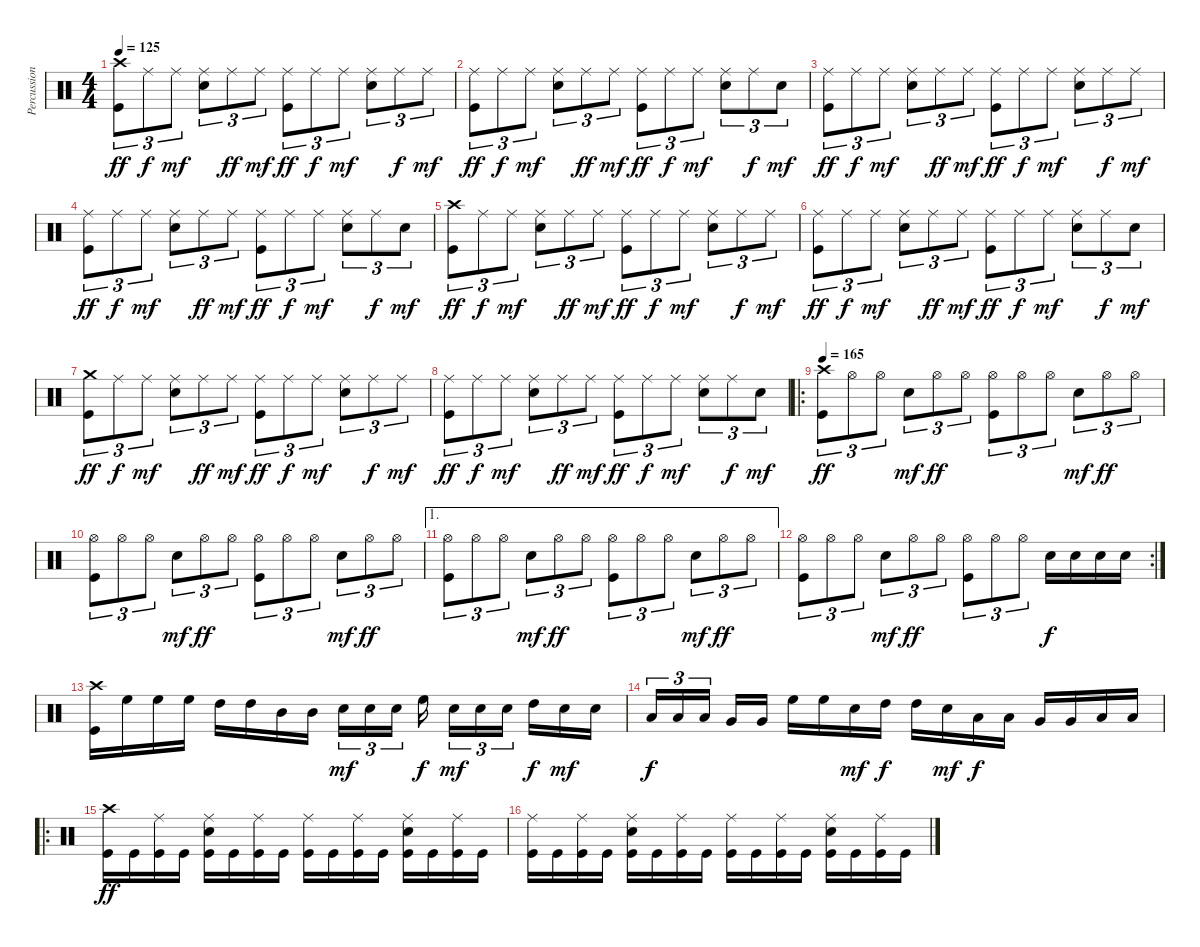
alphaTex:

\track ("Percussion" "Percussion") {instrument percussion}
\staff {score}
\articulation defaults
\ts (4 4)
\tempo 125
\clef neutral
\ks c
("Crash high (hit)" "Kick (hit)").8{tu (3 2) dy ff} "Ride (middle)".8{tu (3 2) dy f} "Ride (middle)".8{tu (3 2) dy mf} ("Ride (middle)" "Electric Snare (hit)").8{tu (3 2)} "Ride (middle)".8{tu (3 2) dy ff} "Ride (middle)".8{tu (3 2) dy mf} ("Ride (middle)" "Kick (hit)").8{tu (3 2) dy ff} "Ride (middle)".8{tu (3 2) dy f} "Ride (middle)".8{tu (3 2) dy mf} ("Ride (middle)" "Electric Snare (hit)").8{tu (3 2)} "Ride (middle)".8{tu (3 2) dy f} "Ride (middle)".8{tu (3 2) dy mf} |
("Ride (middle)" "Kick (hit)").8{tu (3 2) dy ff} "Ride (middle)".8{tu (3 2) dy f} "Ride (middle)".8{tu (3 2) dy mf} ("Ride (middle)" "Electric Snare (hit)").8{tu (3 2)} "Ride (middle)".8{tu (3 2) dy ff} "Ride (middle)".8{tu (3 2) dy mf} ("Ride (middle)" "Kick (hit)").8{tu (3 2) dy ff} "Ride (middle)".8{tu (3 2) dy f} "Ride (middle)".8{tu (3 2) dy mf} ("Ride (middle)" "Electric Snare (hit)").8{tu (3 2)} "Ride (middle)".8{tu (3 2) dy f} "Snare (hit)".8{tu (3 2) dy mf} |
("Ride (middle)" "Kick (hit)").8{tu (3 2) dy ff} "Ride (middle)".8{tu (3 2) dy f} "Ride (middle)".8{tu (3 2) dy mf} ("Ride (middle)" "Electric Snare (hit)").8{tu (3 2)} "Ride (middle)".8{tu (3 2) dy ff} "Ride (middle)".8{tu (3 2) dy mf} ("Ride (middle)" "Kick (hit)").8{tu (3 2) dy ff} "Ride (middle)".8{tu (3 2) dy f} "Ride (middle)".8{tu (3 2) dy mf} ("Ride (middle)" "Electric Snare (hit)").8{tu (3 2)} "Ride (middle)".8{tu (3 2) dy f} "Ride (middle)".8{tu (3 2) dy mf} |
("Ride (middle)" "Kick (hit)").8{tu (3 2) dy ff} "Ride (middle)".8{tu (3 2) dy f} "Ride (middle)".8{tu (3 2) dy mf} ("Ride (middle)" "Electric Snare (hit)").8{tu (3 2)} "Ride (middle)".8{tu (3 2) dy ff} "Ride (middle)".8{tu (3 2) dy mf} ("Ride (middle)" "Kick (hit)").8{tu (3 2) dy ff} "Ride (middle)".8{tu (3 2) dy f} "Ride (middle)".8{tu (3 2) dy mf} ("Ride (middle)" "Electric Snare (hit)").8{tu (3 2)} "Ride (middle)".8{tu (3 2) dy f} "Snare (hit)".8{tu (3 2) dy mf} |
("Crash high (hit)" "Kick (hit)").8{tu (3 2) dy ff} "Ride (middle)".8{tu (3 2) dy f} "Ride (middle)".8{tu (3 2) dy mf} ("Ride (middle)" "Electric Snare (hit)").8{tu (3 2)} "Ride (middle)".8{tu (3 2) dy ff} "Ride (middle)".8{tu (3 2) dy mf} ("Ride (middle)" "Kick (hit)").8{tu (3 2) dy ff} "Ride (middle)".8{tu (3 2) dy f} "Ride (middle)".8{tu (3 2) dy mf} ("Ride (middle)" "Electric Snare (hit)").8{tu (3 2)} "Ride (middle)".8{tu (3 2) dy f} "Ride (middle)".8{tu (3 2) dy mf} |
("Ride (middle)" "Kick (hit)").8{tu (3 2) dy ff} "Ride (middle)".8{tu (3 2) dy f} "Ride (middle)".8{tu (3 2) dy mf} ("Ride (middle)" "Electric Snare (hit)").8{tu (3 2)} "Ride (middle)".8{tu (3 2) dy ff} "Ride (middle)".8{tu (3 2) dy mf} ("Ride (middle)" "Kick (hit)").8{tu (3 2) dy ff} "Ride (middle)".8{tu (3 2) dy f} "Ride (middle)".8{tu (3 2) dy mf} ("Ride (middle)" "Electric Snare (hit)").8{tu (3 2)} "Ride (middle)".8{tu (3 2) dy f} "Snare (hit)".8{tu (3 2) dy mf} |
("Crash medium (hit)" "Kick (hit)").8{tu (3 2) dy ff} "Ride (middle)".8{tu (3 2) dy f} "Ride (middle)".8{tu (3 2) dy mf} ("Ride (middle)" "Electric Snare (hit)").8{tu (3 2)} "Ride (middle)".8{tu (3 2) dy ff} "Ride (middle)".8{tu (3 2) dy mf} ("Ride (middle)" "Kick (hit)").8{tu (3 2) dy ff} "Ride (middle)".8{tu (3 2) dy f} "Ride (middle)".8{tu (3 2) dy mf} ("Ride (middle)" "Electric Snare (hit)").8{tu (3 2)} "Ride (middle)".8{tu (3 2) dy f} "Ride (middle)".8{tu (3 2) dy mf} |
("Ride (middle)" "Kick (hit)").8{tu (3 2) dy ff} "Ride (middle)".8{tu (3 2) dy f} "Ride (middle)".8{tu (3 2) dy mf} ("Ride (middle)" "Electric Snare (hit)").8{tu (3 2)} "Ride (middle)".8{tu (3 2) dy ff} "Ride (middle)".8{tu (3 2) dy mf} ("Ride (middle)" "Kick (hit)").8{tu (3 2) dy ff} "Ride (middle)".8{tu (3 2) dy f} "Ride (middle)".8{tu (3 2) dy mf} ("Ride (middle)" "Electric Snare (hit)").8{tu (3 2)} "Ride (middle)".8{tu (3 2) dy f} "Snare (hit)".8{tu (3 2) dy mf} |
\ro
\tempo 165
("Crash high (hit)" "Kick (hit)").8{tu (3 2) dy ff} "Hi-Hat (open)".8{tu (3 2)} "Hi-Hat (open)".8{tu (3 2)} "Electric Snare (hit)".8{tu (3 2) dy mf} "Hi-Hat (open)".8{tu (3 2) dy ff} "Hi-Hat (open)".8{tu (3 2)} ("Hi-Hat (open)" "Kick (hit)").8{tu (3 2)} "Hi-Hat (open)".8{tu (3 2)} "Hi-Hat (open)".8{tu (3 2)} "Electric Snare (hit)".8{tu (3 2) dy mf} "Hi-Hat (open)".8{tu (3 2) dy ff} "Hi-Hat (open)".8{tu (3 2)} |
("Hi-Hat (open)" "Kick (hit)").8{tu (3 2)} "Hi-Hat (open)".8{tu (3 2)} "Hi-Hat (open)".8{tu (3 2)} "Electric Snare (hit)".8{tu (3 2) dy mf} "Hi-Hat (open)".8{tu (3 2) dy ff} "Hi-Hat (open)".8{tu (3 2)} ("Hi-Hat (open)" "Kick (hit)").8{tu (3 2)} "Hi-Hat (open)".8{tu (3 2)} "Hi-Hat (open)".8{tu (3 2)} "Electric Snare (hit)".8{tu (3 2) dy mf} "Hi-Hat (open)".8{tu (3 2) dy ff} "Hi-Hat (open)".8{tu (3 2)} |
\ae 1
("Hi-Hat (open)" "Kick (hit)").8{tu (3 2)} "Hi-Hat (open)".8{tu (3 2)} "Hi-Hat (open)".8{tu (3 2)} "Electric Snare (hit)".8{tu (3 2) dy mf} "Hi-Hat (open)".8{tu (3 2) dy ff} "Hi-Hat (open)".8{tu (3 2)} ("Hi-Hat (open)" "Kick (hit)").8{tu (3 2)} "Hi-Hat (open)".8{tu (3 2)} "Hi-Hat (open)".8{tu (3 2)} "Electric Snare (hit)".8{tu (3 2) dy mf} "Hi-Hat (open)".8{tu (3 2) dy ff} "Hi-Hat (open)".8{tu (3 2)} |
\rc 2
("Hi-Hat (open)" "Kick (hit)").8{tu (3 2)} "Hi-Hat (open)".8{tu (3 2)} "Hi-Hat (open)".8{tu (3 2)} "Electric Snare (hit)".8{tu (3 2) dy mf} "Hi-Hat (open)".8{tu (3 2) dy ff} "Hi-Hat (open)".8{tu (3 2)} ("Hi-Hat (open)" "Kick (hit)").8{tu (3 2)} "Hi-Hat (open)".8{tu (3 2)} "Hi-Hat (open)".8{tu (3 2)} "Electric Snare (hit)".16{dy f} "Electric Snare (hit)".16 "Electric Snare (hit)".16 "Electric Snare (hit)".16 |
("Crash high (hit)" "Kick (hit)").16 "High Floor Tom (hit)".16 "High Floor Tom (hit)".16 "High Floor Tom (hit)".16 "High Tom (hit)".16 "High Tom (hit)".16 "Mid Tom (hit)".16 "Mid Tom (hit)".16 "Electric Snare (hit)".16{tu (3 2) dy mf} "Electric Snare (hit)".16{tu (3 2)} "Electric Snare (hit)".16{tu (3 2) beam splitsecondary} "High Floor Tom (hit)".16{dy f beam splitsecondary} "Electric Snare (hit)".16{tu (3 2) dy mf} "Electric Snare (hit)".16{tu (3 2)} "Electric Snare (hit)".16{tu (3 2) beam splitsecondary} "High Tom (hit)".16{dy f} "Electric Snare (hit)".16{dy mf} "Electric Snare (hit)".16 |
"Low Tom (hit)".16{tu (3 2) dy f} "Low Tom (hit)".16{tu (3 2)} "Low Tom (hit)".16{tu (3 2) beam splitsecondary} "Very Low Tom (hit)".16 "Very Low Tom (hit)".16 "High Floor Tom (hit)".16 "High Floor Tom (hit)".16 "Electric Snare (hit)".16{dy mf} "High Tom (hit)".16{dy f} "High Tom (hit)".16 "Electric Snare (hit)".16{dy mf} "Low Tom (hit)".16{dy f} "Low Tom (hit)".16 "Very Low Tom (hit)".16 "Very Low Tom (hit)".16 "Low Floor Tom (hit)".16 "Low Floor Tom (hit)".16 |
\ro
("Crash high (hit)" "Kick (hit)").16{dy ff} "Kick (hit)".16 ("Ride (middle)" "Kick (hit)").16 "Kick (hit)".16 ("Ride (middle)" "Electric Snare (hit)" "Kick (hit)").16 "Kick (hit)".16 ("Ride (middle)" "Kick (hit)").16 "Kick (hit)".16 ("Ride (middle)" "Kick (hit)").16 "Kick (hit)".16 ("Ride (middle)" "Kick (hit)").16 "Kick (hit)".16 ("Ride (middle)" "Electric Snare (hit)" "Kick (hit)").16 "Kick (hit)".16 ("Ride (middle)" "Kick (hit)").16 "Kick (hit)".16 |
("Ride (middle)" "Kick (hit)").16 "Kick (hit)".16 ("Ride (middle)" "Kick (hit)").16 "Kick (hit)".16 ("Ride (middle)" "Electric Snare (hit)" "Kick (hit)").16 "Kick (hit)".16 ("Ride (middle)" "Kick (hit)").16 "Kick (hit)".16 ("Ride (middle)" "Kick (hit)").16 "Kick (hit)".16 ("Ride (middle)" "Kick (hit)").16 "Kick (hit)".16 ("Ride (middle)" "Electric Snare (hit)" "Kick (hit)").16 "Kick (hit)".16 ("Ride (middle)" "Kick (hit)").16 "Kick (hit)".16
